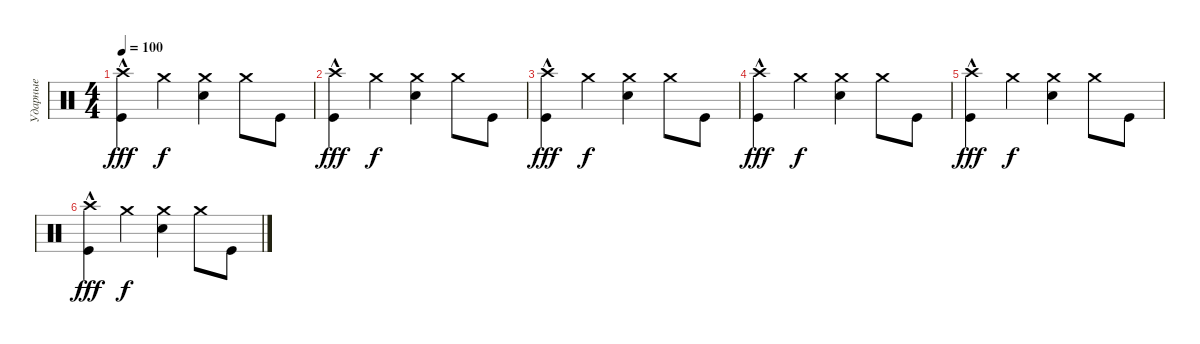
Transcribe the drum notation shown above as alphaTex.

\track ("Ударные" "Ударные") {instrument percussion}
\staff {score}
\articulation defaults
\ts (4 4)
\tempo 100
\clef neutral
\ks c
("Crash high (hit)"{hac} "Kick (hit)"{hac}).4{dy fff} "Crash medium (hit)".4{dy f} ("Crash medium (hit)" "Electric Snare (hit)").4 "Crash medium (hit)".8 "Kick (hit)".8 |
("Crash high (hit)"{hac} "Kick (hit)"{hac}).4{dy fff} "Crash medium (hit)".4{dy f} ("Crash medium (hit)" "Electric Snare (hit)").4 "Crash medium (hit)".8 "Kick (hit)".8 |
("Crash high (hit)"{hac} "Kick (hit)"{hac}).4{dy fff} "Crash medium (hit)".4{dy f} ("Crash medium (hit)" "Electric Snare (hit)").4 "Crash medium (hit)".8 "Kick (hit)".8 |
("Crash high (hit)"{hac} "Kick (hit)"{hac}).4{dy fff} "Crash medium (hit)".4{dy f} ("Crash medium (hit)" "Electric Snare (hit)").4 "Crash medium (hit)".8 "Kick (hit)".8 |
("Crash high (hit)"{hac} "Kick (hit)"{hac}).4{dy fff} "Crash medium (hit)".4{dy f} ("Crash medium (hit)" "Electric Snare (hit)").4 "Crash medium (hit)".8 "Kick (hit)".8 |
("Crash high (hit)"{hac} "Kick (hit)"{hac}).4{dy fff} "Crash medium (hit)".4{dy f} ("Crash medium (hit)" "Electric Snare (hit)").4 "Crash medium (hit)".8 "Kick (hit)".8
